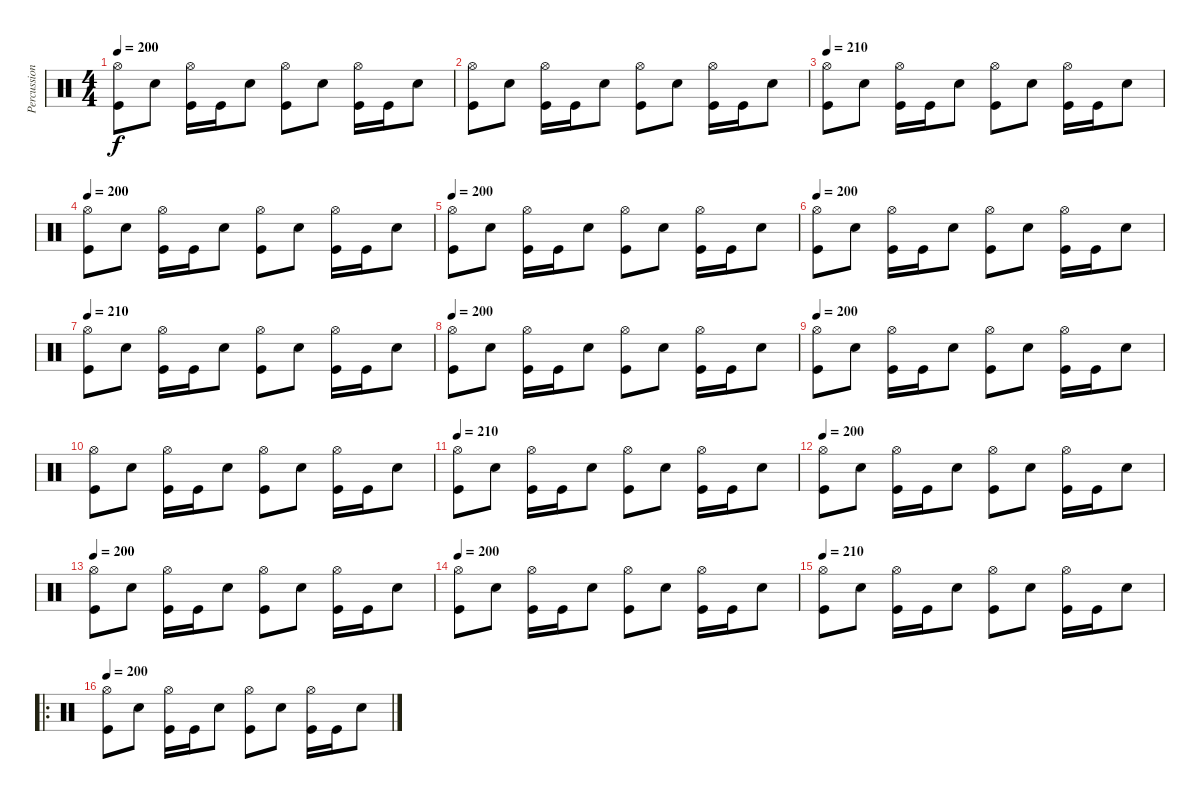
\track ("Percussion" "Percussion") {instrument percussion}
\staff {score}
\articulation defaults
\ts (4 4)
\tempo 200
\clef neutral
\ks c
("Hi-Hat (open)" "Kick (hit)").8{dy f} "Electric Snare (hit)".8 ("Hi-Hat (open)" "Kick (hit)").16 "Kick (hit)".16 "Electric Snare (hit)".8 ("Hi-Hat (open)" "Kick (hit)").8 "Electric Snare (hit)".8 ("Hi-Hat (open)" "Kick (hit)").16 "Kick (hit)".16 "Electric Snare (hit)".8 |
("Hi-Hat (open)" "Kick (hit)").8 "Electric Snare (hit)".8 ("Hi-Hat (open)" "Kick (hit)").16 "Kick (hit)".16 "Electric Snare (hit)".8 ("Hi-Hat (open)" "Kick (hit)").8 "Electric Snare (hit)".8 ("Hi-Hat (open)" "Kick (hit)").16 "Kick (hit)".16 "Electric Snare (hit)".8 |
\tempo 210
("Hi-Hat (open)" "Kick (hit)").8 "Electric Snare (hit)".8 ("Hi-Hat (open)" "Kick (hit)").16 "Kick (hit)".16 "Electric Snare (hit)".8 ("Hi-Hat (open)" "Kick (hit)").8 "Electric Snare (hit)".8 ("Hi-Hat (open)" "Kick (hit)").16 "Kick (hit)".16 "Electric Snare (hit)".8 |
\tempo 200
("Hi-Hat (open)" "Kick (hit)").8 "Electric Snare (hit)".8 ("Hi-Hat (open)" "Kick (hit)").16 "Kick (hit)".16 "Electric Snare (hit)".8 ("Hi-Hat (open)" "Kick (hit)").8 "Electric Snare (hit)".8 ("Hi-Hat (open)" "Kick (hit)").16 "Kick (hit)".16 "Electric Snare (hit)".8 |
\tempo 200
("Hi-Hat (open)" "Kick (hit)").8 "Electric Snare (hit)".8 ("Hi-Hat (open)" "Kick (hit)").16 "Kick (hit)".16 "Electric Snare (hit)".8 ("Hi-Hat (open)" "Kick (hit)").8 "Electric Snare (hit)".8 ("Hi-Hat (open)" "Kick (hit)").16 "Kick (hit)".16 "Electric Snare (hit)".8 |
\tempo 200
("Hi-Hat (open)" "Kick (hit)").8 "Electric Snare (hit)".8 ("Hi-Hat (open)" "Kick (hit)").16 "Kick (hit)".16 "Electric Snare (hit)".8 ("Hi-Hat (open)" "Kick (hit)").8 "Electric Snare (hit)".8 ("Hi-Hat (open)" "Kick (hit)").16 "Kick (hit)".16 "Electric Snare (hit)".8 |
\tempo 210
("Hi-Hat (open)" "Kick (hit)").8 "Electric Snare (hit)".8 ("Hi-Hat (open)" "Kick (hit)").16 "Kick (hit)".16 "Electric Snare (hit)".8 ("Hi-Hat (open)" "Kick (hit)").8 "Electric Snare (hit)".8 ("Hi-Hat (open)" "Kick (hit)").16 "Kick (hit)".16 "Electric Snare (hit)".8 |
\tempo 200
("Hi-Hat (open)" "Kick (hit)").8 "Electric Snare (hit)".8 ("Hi-Hat (open)" "Kick (hit)").16 "Kick (hit)".16 "Electric Snare (hit)".8 ("Hi-Hat (open)" "Kick (hit)").8 "Electric Snare (hit)".8 ("Hi-Hat (open)" "Kick (hit)").16 "Kick (hit)".16 "Electric Snare (hit)".8 |
\tempo 200
("Hi-Hat (open)" "Kick (hit)").8 "Electric Snare (hit)".8 ("Hi-Hat (open)" "Kick (hit)").16 "Kick (hit)".16 "Electric Snare (hit)".8 ("Hi-Hat (open)" "Kick (hit)").8 "Electric Snare (hit)".8 ("Hi-Hat (open)" "Kick (hit)").16 "Kick (hit)".16 "Electric Snare (hit)".8 |
("Hi-Hat (open)" "Kick (hit)").8 "Electric Snare (hit)".8 ("Hi-Hat (open)" "Kick (hit)").16 "Kick (hit)".16 "Electric Snare (hit)".8 ("Hi-Hat (open)" "Kick (hit)").8 "Electric Snare (hit)".8 ("Hi-Hat (open)" "Kick (hit)").16 "Kick (hit)".16 "Electric Snare (hit)".8 |
\tempo 210
("Hi-Hat (open)" "Kick (hit)").8 "Electric Snare (hit)".8 ("Hi-Hat (open)" "Kick (hit)").16 "Kick (hit)".16 "Electric Snare (hit)".8 ("Hi-Hat (open)" "Kick (hit)").8 "Electric Snare (hit)".8 ("Hi-Hat (open)" "Kick (hit)").16 "Kick (hit)".16 "Electric Snare (hit)".8 |
\tempo 200
("Hi-Hat (open)" "Kick (hit)").8 "Electric Snare (hit)".8 ("Hi-Hat (open)" "Kick (hit)").16 "Kick (hit)".16 "Electric Snare (hit)".8 ("Hi-Hat (open)" "Kick (hit)").8 "Electric Snare (hit)".8 ("Hi-Hat (open)" "Kick (hit)").16 "Kick (hit)".16 "Electric Snare (hit)".8 |
\tempo 200
("Hi-Hat (open)" "Kick (hit)").8 "Electric Snare (hit)".8 ("Hi-Hat (open)" "Kick (hit)").16 "Kick (hit)".16 "Electric Snare (hit)".8 ("Hi-Hat (open)" "Kick (hit)").8 "Electric Snare (hit)".8 ("Hi-Hat (open)" "Kick (hit)").16 "Kick (hit)".16 "Electric Snare (hit)".8 |
\tempo 200
("Hi-Hat (open)" "Kick (hit)").8 "Electric Snare (hit)".8 ("Hi-Hat (open)" "Kick (hit)").16 "Kick (hit)".16 "Electric Snare (hit)".8 ("Hi-Hat (open)" "Kick (hit)").8 "Electric Snare (hit)".8 ("Hi-Hat (open)" "Kick (hit)").16 "Kick (hit)".16 "Electric Snare (hit)".8 |
\tempo 210
("Hi-Hat (open)" "Kick (hit)").8 "Electric Snare (hit)".8 ("Hi-Hat (open)" "Kick (hit)").16 "Kick (hit)".16 "Electric Snare (hit)".8 ("Hi-Hat (open)" "Kick (hit)").8 "Electric Snare (hit)".8 ("Hi-Hat (open)" "Kick (hit)").16 "Kick (hit)".16 "Electric Snare (hit)".8 |
\ro
\tempo 200
("Hi-Hat (open)" "Kick (hit)").8 "Electric Snare (hit)".8 ("Hi-Hat (open)" "Kick (hit)").16 "Kick (hit)".16 "Electric Snare (hit)".8 ("Hi-Hat (open)" "Kick (hit)").8 "Electric Snare (hit)".8 ("Hi-Hat (open)" "Kick (hit)").16 "Kick (hit)".16 "Electric Snare (hit)".8
